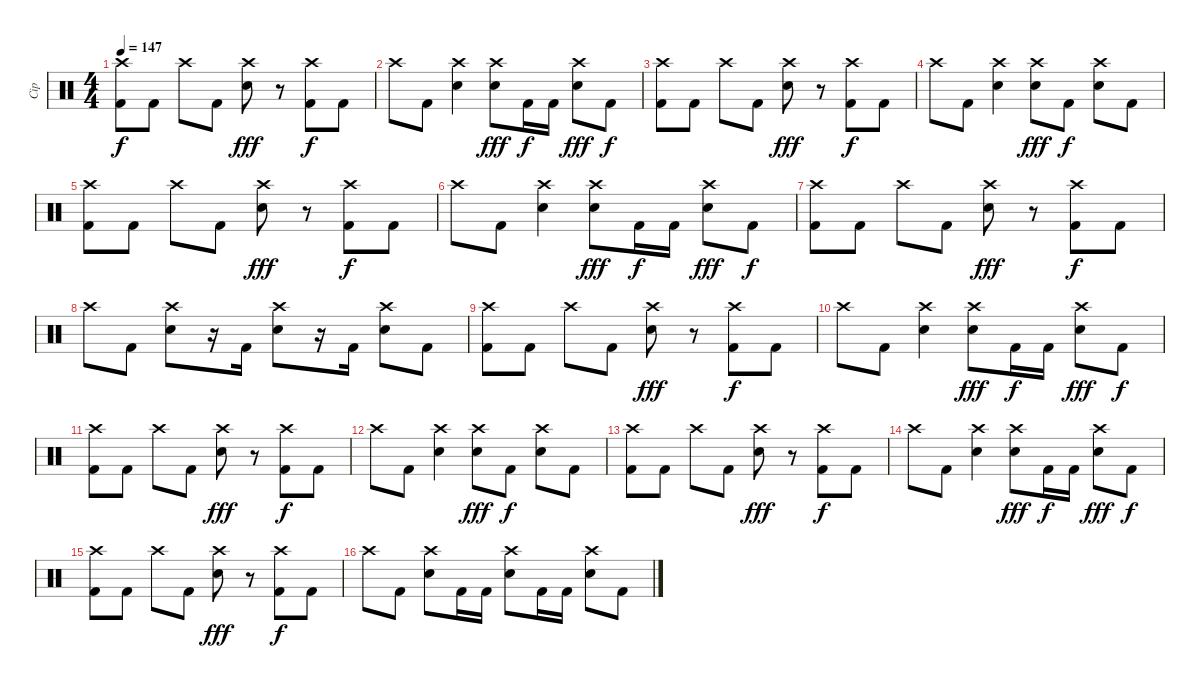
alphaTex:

\track ("Cip" "Cip") {instrument percussion}
\staff {score}
\articulation defaults
\ts (4 4)
\tempo 147
\clef neutral
\ks c
("Crash high (hit)" "Kick (hit) 2").8{dy f} "Kick (hit) 2".8 "Crash high (hit)".8 "Kick (hit) 2".8 ("Crash high (hit)" "Electric Snare (hit)").8{dy fff} r.8 ("Crash high (hit)" "Kick (hit) 2").8{dy f} "Kick (hit) 2".8 |
"Crash high (hit)".8 "Kick (hit) 2".8 ("Crash high (hit)" "Electric Snare (hit)").4 ("Crash high (hit)" "Electric Snare (hit)").8{dy fff} "Kick (hit) 2".16{dy f} "Kick (hit) 2".16 ("Crash high (hit)" "Electric Snare (hit)").8{dy fff} "Kick (hit) 2".8{dy f} |
("Crash high (hit)" "Kick (hit) 2").8 "Kick (hit) 2".8 "Crash high (hit)".8 "Kick (hit) 2".8 ("Crash high (hit)" "Electric Snare (hit)").8{dy fff} r.8 ("Crash high (hit)" "Kick (hit) 2").8{dy f} "Kick (hit) 2".8 |
"Crash high (hit)".8 "Kick (hit) 2".8 ("Crash high (hit)" "Electric Snare (hit)").4 ("Crash high (hit)" "Electric Snare (hit)").8{dy fff} "Kick (hit) 2".8{dy f} ("Crash high (hit)" "Electric Snare (hit)").8 "Kick (hit) 2".8 |
("Crash high (hit)" "Kick (hit) 2").8 "Kick (hit) 2".8 "Crash high (hit)".8 "Kick (hit) 2".8 ("Crash high (hit)" "Electric Snare (hit)").8{dy fff} r.8 ("Crash high (hit)" "Kick (hit) 2").8{dy f} "Kick (hit) 2".8 |
"Crash high (hit)".8 "Kick (hit) 2".8 ("Crash high (hit)" "Electric Snare (hit)").4 ("Crash high (hit)" "Electric Snare (hit)").8{dy fff} "Kick (hit) 2".16{dy f} "Kick (hit) 2".16 ("Crash high (hit)" "Electric Snare (hit)").8{dy fff} "Kick (hit) 2".8{dy f} |
("Crash high (hit)" "Kick (hit) 2").8 "Kick (hit) 2".8 "Crash high (hit)".8 "Kick (hit) 2".8 ("Crash high (hit)" "Electric Snare (hit)").8{dy fff} r.8 ("Crash high (hit)" "Kick (hit) 2").8{dy f} "Kick (hit) 2".8 |
"Crash high (hit)".8 "Kick (hit) 2".8 ("Crash high (hit)" "Electric Snare (hit)").8 r.16 "Kick (hit) 2".16 ("Crash high (hit)" "Electric Snare (hit)").8 r.16 "Kick (hit) 2".16 ("Crash high (hit)" "Electric Snare (hit)").8 "Kick (hit) 2".8 |
("Crash high (hit)" "Kick (hit) 2").8 "Kick (hit) 2".8 "Crash high (hit)".8 "Kick (hit) 2".8 ("Crash high (hit)" "Electric Snare (hit)").8{dy fff} r.8 ("Crash high (hit)" "Kick (hit) 2").8{dy f} "Kick (hit) 2".8 |
"Crash high (hit)".8 "Kick (hit) 2".8 ("Crash high (hit)" "Electric Snare (hit)").4 ("Crash high (hit)" "Electric Snare (hit)").8{dy fff} "Kick (hit) 2".16{dy f} "Kick (hit) 2".16 ("Crash high (hit)" "Electric Snare (hit)").8{dy fff} "Kick (hit) 2".8{dy f} |
("Crash high (hit)" "Kick (hit) 2").8 "Kick (hit) 2".8 "Crash high (hit)".8 "Kick (hit) 2".8 ("Crash high (hit)" "Electric Snare (hit)").8{dy fff} r.8 ("Crash high (hit)" "Kick (hit) 2").8{dy f} "Kick (hit) 2".8 |
"Crash high (hit)".8 "Kick (hit) 2".8 ("Crash high (hit)" "Electric Snare (hit)").4 ("Crash high (hit)" "Electric Snare (hit)").8{dy fff} "Kick (hit) 2".8{dy f} ("Crash high (hit)" "Electric Snare (hit)").8 "Kick (hit) 2".8 |
("Crash high (hit)" "Kick (hit) 2").8 "Kick (hit) 2".8 "Crash high (hit)".8 "Kick (hit) 2".8 ("Crash high (hit)" "Electric Snare (hit)").8{dy fff} r.8 ("Crash high (hit)" "Kick (hit) 2").8{dy f} "Kick (hit) 2".8 |
"Crash high (hit)".8 "Kick (hit) 2".8 ("Crash high (hit)" "Electric Snare (hit)").4 ("Crash high (hit)" "Electric Snare (hit)").8{dy fff} "Kick (hit) 2".16{dy f} "Kick (hit) 2".16 ("Crash high (hit)" "Electric Snare (hit)").8{dy fff} "Kick (hit) 2".8{dy f} |
("Crash high (hit)" "Kick (hit) 2").8 "Kick (hit) 2".8 "Crash high (hit)".8 "Kick (hit) 2".8 ("Crash high (hit)" "Electric Snare (hit)").8{dy fff} r.8 ("Crash high (hit)" "Kick (hit) 2").8{dy f} "Kick (hit) 2".8 |
"Crash high (hit)".8 "Kick (hit) 2".8 ("Crash high (hit)" "Electric Snare (hit)").8 "Kick (hit) 2".16 "Kick (hit) 2".16 ("Crash high (hit)" "Electric Snare (hit)").8 "Kick (hit) 2".16 "Kick (hit) 2".16 ("Crash high (hit)" "Electric Snare (hit)").8 "Kick (hit) 2".8
